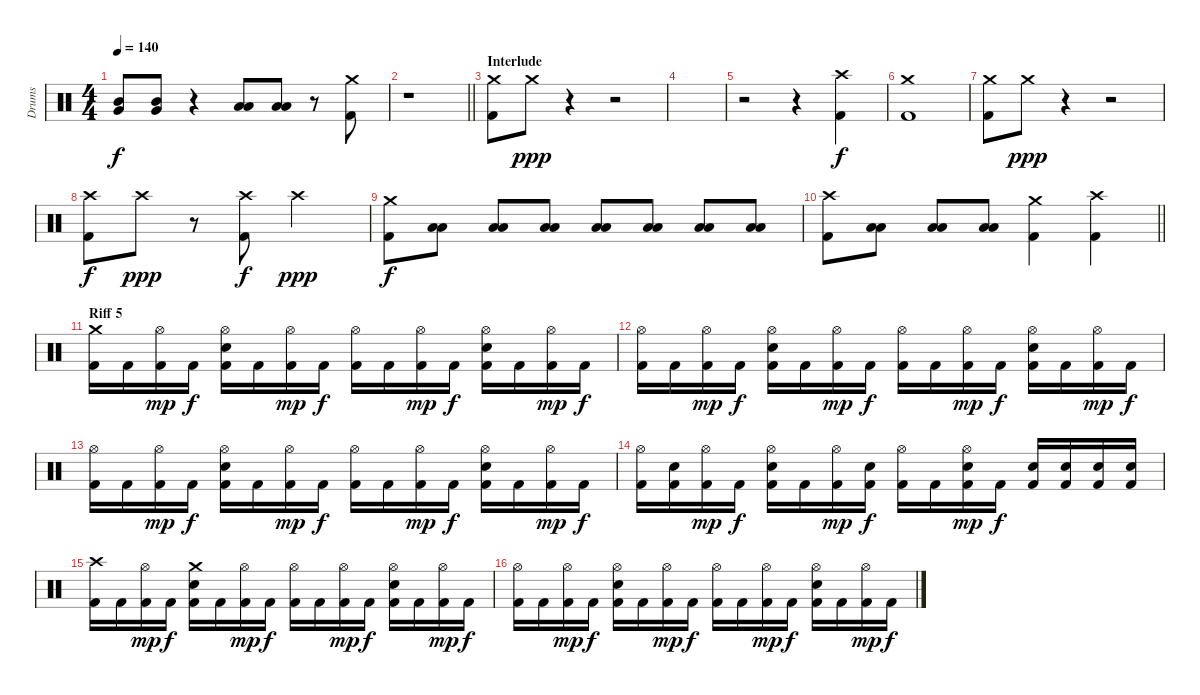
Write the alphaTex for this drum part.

\track ("Drums" "Drums") {instrument percussion}
\staff {score}
\articulation defaults
\ts (4 4)
\tempo 140
\clef neutral
\ks c
("Mid Tom (hit)" "Very Low Tom (hit)").8{dy f} ("Mid Tom (hit)" "Very Low Tom (hit)").8 r.4 ("Low Tom (hit)" "Low Floor Tom (hit)").8 ("Low Tom (hit)" "Low Floor Tom (hit)").8 r.8 ("Crash medium (hit)" "Kick (hit) 2").8 |
\barLineRight lightlight
r.1 |
\section ("" "Interlude")
("Kick (hit) 2" "Crash medium (hit)").8 "Crash medium (hit)".8{dy ppp} r.4 r.2 |
|
r.2 r.4 ("Kick (hit) 2" "Crash high (hit)").4{dy f} |
("Kick (hit) 2" "Crash medium (hit)").1 |
("Kick (hit) 2" "Crash medium (hit)").8 "Crash medium (hit)".8{dy ppp} r.4 r.2 |
("Crash high (hit)" "Kick (hit) 2").8{dy f} "Crash high (hit)".8{dy ppp} r.8 ("Crash high (hit)" "Kick (hit) 2").8{dy f} "Crash high (hit)".2{dy ppp} |
("Crash medium (hit)" "Kick (hit) 2").8{dy f} ("Low Tom (hit)" "Low Floor Tom (hit)").8 ("Low Tom (hit)" "Low Floor Tom (hit)").8 ("Low Tom (hit)" "Low Floor Tom (hit)").8 ("Low Tom (hit)" "Low Floor Tom (hit)").8 ("Low Tom (hit)" "Low Floor Tom (hit)").8 ("Low Tom (hit)" "Low Floor Tom (hit)").8 ("Low Tom (hit)" "Low Floor Tom (hit)").8 |
\barLineRight lightlight
("Crash high (hit)" "Kick (hit) 2").8 ("Low Tom (hit)" "Low Floor Tom (hit)").8 ("Low Tom (hit)" "Low Floor Tom (hit)").8 ("Low Tom (hit)" "Low Floor Tom (hit)").8 ("Kick (hit) 2" "Crash medium (hit)").4 ("Kick (hit) 2" "Crash high (hit)").4 |
\section ("" "Riff 5")
("Crash medium (hit)" "Kick (hit) 2").16 "Kick (hit) 2".16 ("Hi-Hat (open)" "Kick (hit) 2").16{dy mp} "Kick (hit) 2".16{dy f} ("Hi-Hat (open)" "Electric Snare (hit)" "Kick (hit) 2").16 "Kick (hit) 2".16 ("Hi-Hat (open)" "Kick (hit) 2").16{dy mp} "Kick (hit) 2".16{dy f} ("Hi-Hat (open)" "Kick (hit) 2").16 "Kick (hit) 2".16 ("Hi-Hat (open)" "Kick (hit) 2").16{dy mp} "Kick (hit) 2".16{dy f} ("Hi-Hat (open)" "Electric Snare (hit)" "Kick (hit) 2").16 "Kick (hit) 2".16 ("Hi-Hat (open)" "Kick (hit) 2").16{dy mp} "Kick (hit) 2".16{dy f} |
("Hi-Hat (open)" "Kick (hit) 2").16 "Kick (hit) 2".16 ("Hi-Hat (open)" "Kick (hit) 2").16{dy mp} "Kick (hit) 2".16{dy f} ("Hi-Hat (open)" "Electric Snare (hit)" "Kick (hit) 2").16 "Kick (hit) 2".16 ("Hi-Hat (open)" "Kick (hit) 2").16{dy mp} "Kick (hit) 2".16{dy f} ("Hi-Hat (open)" "Kick (hit) 2").16 "Kick (hit) 2".16 ("Hi-Hat (open)" "Kick (hit) 2").16{dy mp} "Kick (hit) 2".16{dy f} ("Hi-Hat (open)" "Electric Snare (hit)" "Kick (hit) 2").16 "Kick (hit) 2".16 ("Hi-Hat (open)" "Kick (hit) 2").16{dy mp} "Kick (hit) 2".16{dy f} |
("Hi-Hat (open)" "Kick (hit) 2").16 "Kick (hit) 2".16 ("Hi-Hat (open)" "Kick (hit) 2").16{dy mp} "Kick (hit) 2".16{dy f} ("Hi-Hat (open)" "Electric Snare (hit)" "Kick (hit) 2").16 "Kick (hit) 2".16 ("Hi-Hat (open)" "Kick (hit) 2").16{dy mp} "Kick (hit) 2".16{dy f} ("Hi-Hat (open)" "Kick (hit) 2").16 "Kick (hit) 2".16 ("Hi-Hat (open)" "Kick (hit) 2").16{dy mp} "Kick (hit) 2".16{dy f} ("Hi-Hat (open)" "Electric Snare (hit)" "Kick (hit) 2").16 "Kick (hit) 2".16 ("Hi-Hat (open)" "Kick (hit) 2").16{dy mp} "Kick (hit) 2".16{dy f} |
("Hi-Hat (open)" "Kick (hit) 2").16 ("Electric Snare (hit)" "Kick (hit) 2").16 ("Hi-Hat (open)" "Kick (hit) 2").16{dy mp} "Kick (hit) 2".16{dy f} ("Hi-Hat (open)" "Electric Snare (hit)" "Kick (hit) 2").16 "Kick (hit) 2".16 ("Hi-Hat (open)" "Kick (hit) 2").16{dy mp} ("Electric Snare (hit)" "Kick (hit) 2").16{dy f} ("Hi-Hat (open)" "Kick (hit) 2").16 "Kick (hit) 2".16 ("Hi-Hat (open)" "Electric Snare (hit)" "Kick (hit) 2").16{dy mp} "Kick (hit) 2".16{dy f} ("Electric Snare (hit)" "Kick (hit) 2").16 ("Electric Snare (hit)" "Kick (hit) 2").16 ("Electric Snare (hit)" "Kick (hit) 2").16 ("Electric Snare (hit)" "Kick (hit) 2").16 |
("Crash high (hit)" "Kick (hit) 2").16 "Kick (hit) 2".16 ("Hi-Hat (open)" "Kick (hit) 2").16{dy mp} "Kick (hit) 2".16{dy f} ("Crash medium (hit)" "Electric Snare (hit)" "Kick (hit) 2").16 "Kick (hit) 2".16 ("Hi-Hat (open)" "Kick (hit) 2").16{dy mp} "Kick (hit) 2".16{dy f} ("Hi-Hat (open)" "Kick (hit) 2").16 "Kick (hit) 2".16 ("Hi-Hat (open)" "Kick (hit) 2").16{dy mp} "Kick (hit) 2".16{dy f} ("Hi-Hat (open)" "Electric Snare (hit)" "Kick (hit) 2").16 "Kick (hit) 2".16 ("Hi-Hat (open)" "Kick (hit) 2").16{dy mp} "Kick (hit) 2".16{dy f} |
("Hi-Hat (open)" "Kick (hit) 2").16 "Kick (hit) 2".16 ("Hi-Hat (open)" "Kick (hit) 2").16{dy mp} "Kick (hit) 2".16{dy f} ("Hi-Hat (open)" "Electric Snare (hit)" "Kick (hit) 2").16 "Kick (hit) 2".16 ("Hi-Hat (open)" "Kick (hit) 2").16{dy mp} "Kick (hit) 2".16{dy f} ("Hi-Hat (open)" "Kick (hit) 2").16 "Kick (hit) 2".16 ("Hi-Hat (open)" "Kick (hit) 2").16{dy mp} "Kick (hit) 2".16{dy f} ("Hi-Hat (open)" "Electric Snare (hit)" "Kick (hit) 2").16 "Kick (hit) 2".16 ("Hi-Hat (open)" "Kick (hit) 2").16{dy mp} "Kick (hit) 2".16{dy f}
